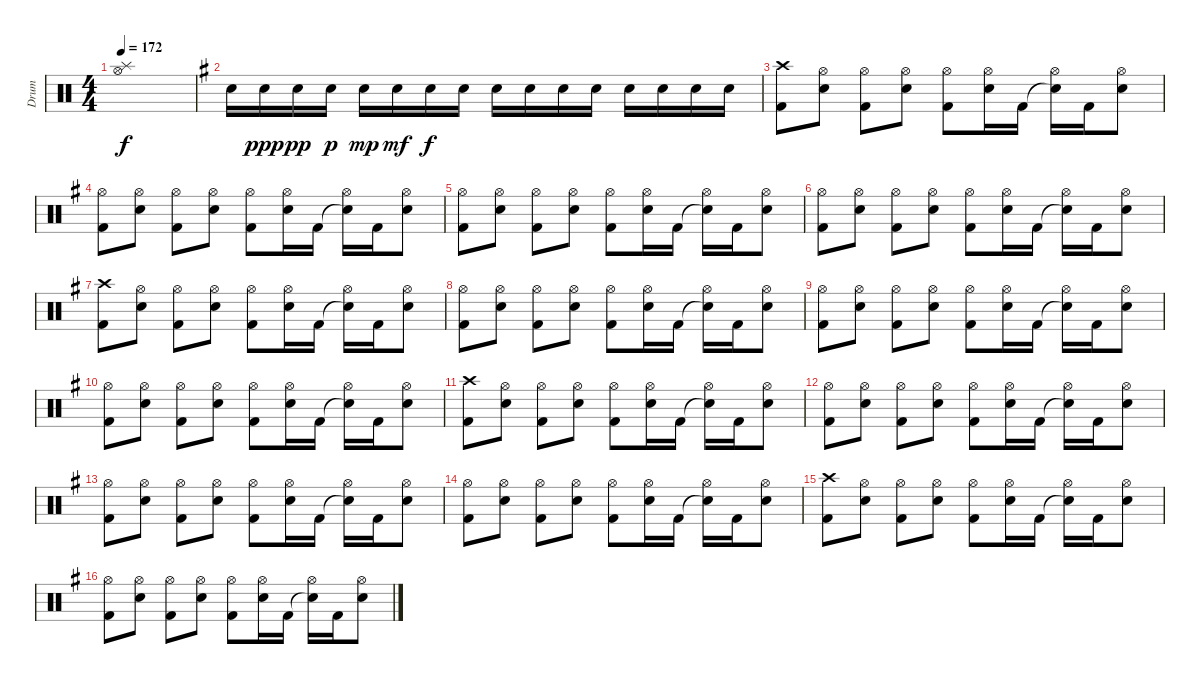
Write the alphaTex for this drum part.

\track ("Drum" "Drum") {instrument percussion}
\staff {score}
\articulation defaults
\ts (4 4)
\tempo 172
\clef neutral
\ks c
("Splash (hit)" "Hi-Hat (open)").1{dy f} |
\ks eminor "Electric Snare (hit)".16 "Electric Snare (hit)".16{dy ppp} "Electric Snare (hit)".16{dy pp} "Electric Snare (hit)".16{dy p} "Electric Snare (hit)".16{dy mp} "Electric Snare (hit)".16{dy mf} "Electric Snare (hit)".16{dy f} "Electric Snare (hit)".16 "Electric Snare (hit)".16 "Electric Snare (hit)".16 "Electric Snare (hit)".16 "Electric Snare (hit)".16 "Electric Snare (hit)".16 "Electric Snare (hit)".16 "Electric Snare (hit)".16 "Electric Snare (hit)".16
|
("Kick (hit) 2" "Crash high (hit)").8 ("Electric Snare (hit)" "Hi-Hat (open)").8 ("Kick (hit) 2" "Hi-Hat (open)").8 ("Electric Snare (hit)" "Hi-Hat (open)").8 ("Kick (hit) 2" "Hi-Hat (open)").8 ("Electric Snare (hit)" "Hi-Hat (open)").16 "Kick (hit) 2".16 ("Snare (hit)"{t} "Hi-Hat (open)").16 "Kick (hit) 2".16 ("Electric Snare (hit)" "Hi-Hat (open)").8 |
("Kick (hit) 2" "Hi-Hat (open)").8 ("Electric Snare (hit)" "Hi-Hat (open)").8 ("Kick (hit) 2" "Hi-Hat (open)").8 ("Electric Snare (hit)" "Hi-Hat (open)").8 ("Kick (hit) 2" "Hi-Hat (open)").8 ("Electric Snare (hit)" "Hi-Hat (open)").16 "Kick (hit) 2".16 ("Snare (hit)"{t} "Hi-Hat (open)").16 "Kick (hit) 2".16 ("Electric Snare (hit)" "Hi-Hat (open)").8 |
("Kick (hit) 2" "Hi-Hat (open)").8 ("Electric Snare (hit)" "Hi-Hat (open)").8 ("Kick (hit) 2" "Hi-Hat (open)").8 ("Electric Snare (hit)" "Hi-Hat (open)").8 ("Kick (hit) 2" "Hi-Hat (open)").8 ("Electric Snare (hit)" "Hi-Hat (open)").16 "Kick (hit) 2".16 ("Snare (hit)"{t} "Hi-Hat (open)").16 "Kick (hit) 2".16 ("Electric Snare (hit)" "Hi-Hat (open)").8 |
("Kick (hit) 2" "Hi-Hat (open)").8 ("Electric Snare (hit)" "Hi-Hat (open)").8 ("Kick (hit) 2" "Hi-Hat (open)").8 ("Electric Snare (hit)" "Hi-Hat (open)").8 ("Kick (hit) 2" "Hi-Hat (open)").8 ("Electric Snare (hit)" "Hi-Hat (open)").16 "Kick (hit) 2".16 ("Snare (hit)"{t} "Hi-Hat (open)").16 "Kick (hit) 2".16 ("Electric Snare (hit)" "Hi-Hat (open)").8 |
("Kick (hit) 2" "Crash high (hit)").8 ("Electric Snare (hit)" "Hi-Hat (open)").8 ("Kick (hit) 2" "Hi-Hat (open)").8 ("Electric Snare (hit)" "Hi-Hat (open)").8 ("Kick (hit) 2" "Hi-Hat (open)").8 ("Electric Snare (hit)" "Hi-Hat (open)").16 "Kick (hit) 2".16 ("Snare (hit)"{t} "Hi-Hat (open)").16 "Kick (hit) 2".16 ("Electric Snare (hit)" "Hi-Hat (open)").8 |
("Kick (hit) 2" "Hi-Hat (open)").8 ("Electric Snare (hit)" "Hi-Hat (open)").8 ("Kick (hit) 2" "Hi-Hat (open)").8 ("Electric Snare (hit)" "Hi-Hat (open)").8 ("Kick (hit) 2" "Hi-Hat (open)").8 ("Electric Snare (hit)" "Hi-Hat (open)").16 "Kick (hit) 2".16 ("Snare (hit)"{t} "Hi-Hat (open)").16 "Kick (hit) 2".16 ("Electric Snare (hit)" "Hi-Hat (open)").8 |
("Kick (hit) 2" "Hi-Hat (open)").8 ("Electric Snare (hit)" "Hi-Hat (open)").8 ("Kick (hit) 2" "Hi-Hat (open)").8 ("Electric Snare (hit)" "Hi-Hat (open)").8 ("Kick (hit) 2" "Hi-Hat (open)").8 ("Electric Snare (hit)" "Hi-Hat (open)").16 "Kick (hit) 2".16 ("Snare (hit)"{t} "Hi-Hat (open)").16 "Kick (hit) 2".16 ("Electric Snare (hit)" "Hi-Hat (open)").8 |
("Kick (hit) 2" "Hi-Hat (open)").8 ("Electric Snare (hit)" "Hi-Hat (open)").8 ("Kick (hit) 2" "Hi-Hat (open)").8 ("Electric Snare (hit)" "Hi-Hat (open)").8 ("Kick (hit) 2" "Hi-Hat (open)").8 ("Electric Snare (hit)" "Hi-Hat (open)").16 "Kick (hit) 2".16 ("Snare (hit)"{t} "Hi-Hat (open)").16 "Kick (hit) 2".16 ("Electric Snare (hit)" "Hi-Hat (open)").8 |
("Kick (hit) 2" "Crash high (hit)").8 ("Electric Snare (hit)" "Hi-Hat (open)").8 ("Kick (hit) 2" "Hi-Hat (open)").8 ("Electric Snare (hit)" "Hi-Hat (open)").8 ("Kick (hit) 2" "Hi-Hat (open)").8 ("Electric Snare (hit)" "Hi-Hat (open)").16 "Kick (hit) 2".16 ("Snare (hit)"{t} "Hi-Hat (open)").16 "Kick (hit) 2".16 ("Electric Snare (hit)" "Hi-Hat (open)").8 |
("Kick (hit) 2" "Hi-Hat (open)").8 ("Electric Snare (hit)" "Hi-Hat (open)").8 ("Kick (hit) 2" "Hi-Hat (open)").8 ("Electric Snare (hit)" "Hi-Hat (open)").8 ("Kick (hit) 2" "Hi-Hat (open)").8 ("Electric Snare (hit)" "Hi-Hat (open)").16 "Kick (hit) 2".16 ("Snare (hit)"{t} "Hi-Hat (open)").16 "Kick (hit) 2".16 ("Electric Snare (hit)" "Hi-Hat (open)").8 |
("Kick (hit) 2" "Hi-Hat (open)").8 ("Electric Snare (hit)" "Hi-Hat (open)").8 ("Kick (hit) 2" "Hi-Hat (open)").8 ("Electric Snare (hit)" "Hi-Hat (open)").8 ("Kick (hit) 2" "Hi-Hat (open)").8 ("Electric Snare (hit)" "Hi-Hat (open)").16 "Kick (hit) 2".16 ("Snare (hit)"{t} "Hi-Hat (open)").16 "Kick (hit) 2".16 ("Electric Snare (hit)" "Hi-Hat (open)").8 |
("Kick (hit) 2" "Hi-Hat (open)").8 ("Electric Snare (hit)" "Hi-Hat (open)").8 ("Kick (hit) 2" "Hi-Hat (open)").8 ("Electric Snare (hit)" "Hi-Hat (open)").8 ("Kick (hit) 2" "Hi-Hat (open)").8 ("Electric Snare (hit)" "Hi-Hat (open)").16 "Kick (hit) 2".16 ("Snare (hit)"{t} "Hi-Hat (open)").16 "Kick (hit) 2".16 ("Electric Snare (hit)" "Hi-Hat (open)").8 |
("Kick (hit) 2" "Crash high (hit)").8 ("Electric Snare (hit)" "Hi-Hat (open)").8 ("Kick (hit) 2" "Hi-Hat (open)").8 ("Electric Snare (hit)" "Hi-Hat (open)").8 ("Kick (hit) 2" "Hi-Hat (open)").8 ("Electric Snare (hit)" "Hi-Hat (open)").16 "Kick (hit) 2".16 ("Snare (hit)"{t} "Hi-Hat (open)").16 "Kick (hit) 2".16 ("Electric Snare (hit)" "Hi-Hat (open)").8 |
("Kick (hit) 2" "Hi-Hat (open)").8 ("Electric Snare (hit)" "Hi-Hat (open)").8 ("Kick (hit) 2" "Hi-Hat (open)").8 ("Electric Snare (hit)" "Hi-Hat (open)").8 ("Kick (hit) 2" "Hi-Hat (open)").8 ("Electric Snare (hit)" "Hi-Hat (open)").16 "Kick (hit) 2".16 ("Snare (hit)"{t} "Hi-Hat (open)").16 "Kick (hit) 2".16 ("Electric Snare (hit)" "Hi-Hat (open)").8
